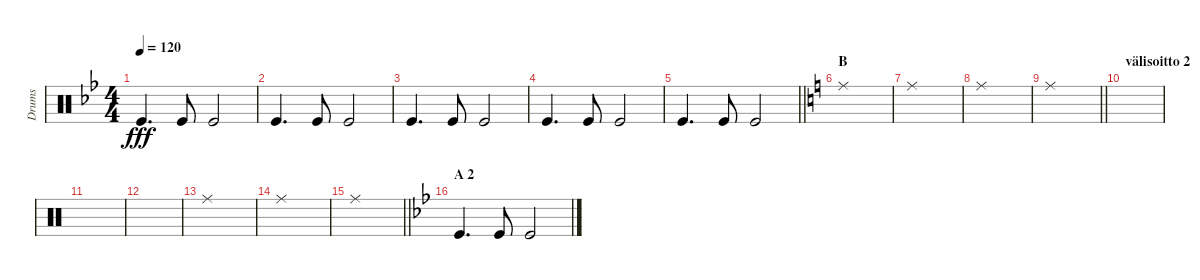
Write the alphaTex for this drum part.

\track ("Drums" "Drums") {instrument percussion}
\staff {score}
\articulation defaults
\ts (4 4)
\tempo 120
\clef neutral
\ks gminor "Kick (hit)".4{d dy fff} "Kick (hit)".8 "Kick (hit)".2
|
"Kick (hit)".4{d} "Kick (hit)".8 "Kick (hit)".2 |
"Kick (hit)".4{d} "Kick (hit)".8 "Kick (hit)".2 |
"Kick (hit)".4{d} "Kick (hit)".8 "Kick (hit)".2 |
\barLineRight lightlight "Kick (hit)".4{d} "Kick (hit)".8 "Kick (hit)".2
|
\section ("" "B")
\ks aminor "Ride (middle)".1
|
"Ride (middle)".1 |
"Ride (middle)".1 |
\barLineRight lightlight "Ride (middle)".1
|
\section ("" "välisoitto 2")
|
|
|
"Ride (middle)".1 |
"Ride (middle)".1 |
\barLineRight lightlight "Ride (middle)".1
|
\section ("" "A 2")
\ks gminor "Kick (hit)".4{d} "Kick (hit)".8 "Kick (hit)".2
